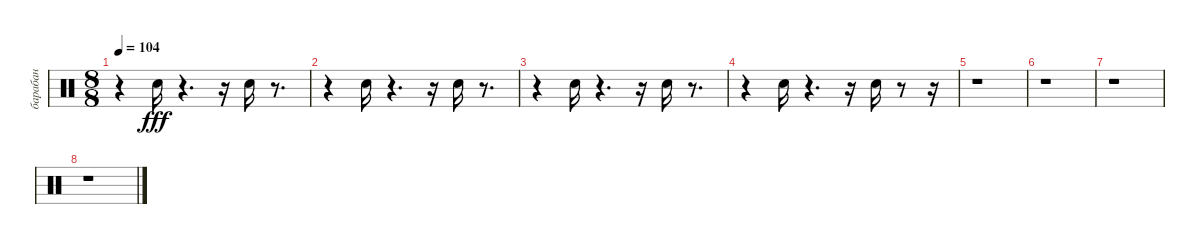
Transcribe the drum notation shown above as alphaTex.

\track ("барабан" "барабан") {instrument percussion}
\staff {score}
\articulation defaults
\ts (8 8)
\tempo 104
\clef neutral
\ks c
r.4{dy fff} "Snare (hit) 2".16 r.4{d} r.16 "Snare (hit) 2".16 r.8{d} |
r.4 "Snare (hit) 2".16 r.4{d} r.16 "Snare (hit) 2".16 r.8{d} |
r.4 "Snare (hit) 2".16 r.4{d} r.16 "Snare (hit) 2".16 r.8{d} |
r.4 "Snare (hit) 2".16 r.4{d} r.16 "Snare (hit) 2".16 r.8 r.16 |
r.1 |
r.1 |
r.1 |
r.1
